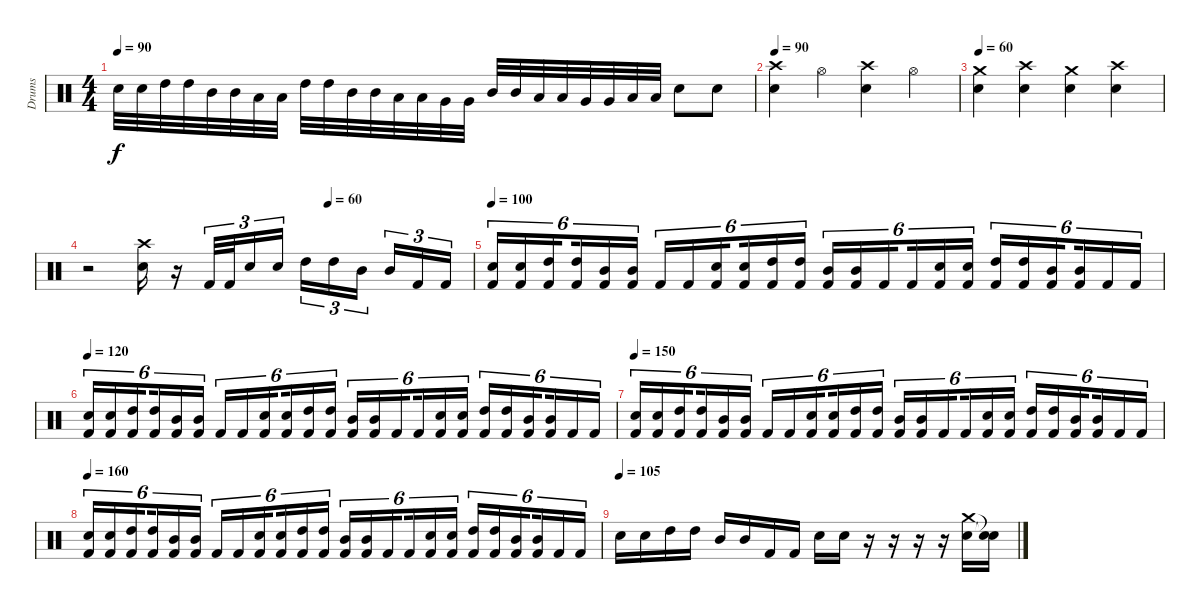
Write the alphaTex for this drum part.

\track ("Drums" "Drums") {instrument percussion}
\staff {score}
\articulation defaults
\ts (4 4)
\tempo 90
\clef neutral
\ks c "Snare (hit) 2".32{dy f} "Snare (hit) 2".32 "High Tom (hit)".32 "High Tom (hit)".32 "Mid Tom (hit)".32 "Mid Tom (hit)".32 "Low Tom (hit)".32 "Low Tom (hit)".32 "High Tom (hit)".32 "High Tom (hit)".32 "Mid Tom (hit)".32 "Mid Tom (hit)".32 "Low Tom (hit)".32 "Low Tom (hit)".32 "Very Low Tom (hit)".32 "Very Low Tom (hit)".32 "Mid Tom (hit)".32 "Mid Tom (hit)".32 "Low Tom (hit)".32 "Low Tom (hit)".32 "Very Low Tom (hit)".32 "Very Low Tom (hit)".32 "Low Floor Tom (hit)".32 "Low Floor Tom (hit)".32 "Snare (hit) 2".8 "Snare (hit) 2".8
|
\tempo 90
("Crash high (hit)" "Snare (hit) 2").4 "Hi-Hat (open)".4 ("Crash high (hit)" "Snare (hit) 2").4 "Hi-Hat (open)".4 |
\tempo 60
("Crash medium (hit)" "Snare (hit) 2").4 ("Crash high (hit)" "Snare (hit) 2").4 ("Crash medium (hit)" "Snare (hit) 2").4 ("Crash high (hit)" "Snare (hit) 2").4 |
\tempo (60 0.625)
r.2 ("Crash high (hit)" "Snare (hit) 2").16 r.16 "Kick (hit) 2".32{tu (3 2)} "Kick (hit) 2".32{tu (3 2)} "Snare (hit) 2".16{tu (3 2)} "Snare (hit) 2".16{tu (3 2)} "High Tom (hit)".16{tu (3 2)} "High Tom (hit)".16{tu (3 2)} "Mid Tom (hit)".16{tu (3 2) beam splitsecondary} "Mid Tom (hit)".16{tu (3 2)} "Kick (hit) 2".16{tu (3 2)} "Kick (hit) 2".16{tu (3 2)} |
\tempo 100
("Snare (hit) 2" "Kick (hit) 2").16{tu (6 4)} ("Snare (hit) 2" "Kick (hit) 2").16{tu (6 4)} ("High Tom (hit)" "Kick (hit) 2").16{tu (6 4) beam splitsecondary} ("High Tom (hit)" "Kick (hit) 2").16{tu (6 4)} ("Mid Tom (hit)" "Kick (hit) 2").16{tu (6 4)} ("Mid Tom (hit)" "Kick (hit) 2").16{tu (6 4)} "Kick (hit) 2".16{tu (6 4)} "Kick (hit) 2".16{tu (6 4)} ("Snare (hit) 2" "Kick (hit) 2").16{tu (6 4) beam splitsecondary} ("Snare (hit) 2" "Kick (hit) 2").16{tu (6 4)} ("High Tom (hit)" "Kick (hit) 2").16{tu (6 4)} ("High Tom (hit)" "Kick (hit) 2").16{tu (6 4)} ("Mid Tom (hit)" "Kick (hit) 2").16{tu (6 4)} ("Mid Tom (hit)" "Kick (hit) 2").16{tu (6 4)} "Kick (hit) 2".16{tu (6 4) beam splitsecondary} "Kick (hit) 2".16{tu (6 4)} ("Snare (hit) 2" "Kick (hit) 2").16{tu (6 4)} ("Snare (hit) 2" "Kick (hit) 2").16{tu (6 4)} ("High Tom (hit)" "Kick (hit) 2").16{tu (6 4)} ("High Tom (hit)" "Kick (hit) 2").16{tu (6 4)} ("Mid Tom (hit)" "Kick (hit) 2").16{tu (6 4) beam splitsecondary} ("Mid Tom (hit)" "Kick (hit) 2").16{tu (6 4)} "Kick (hit) 2".16{tu (6 4)} "Kick (hit) 2".16{tu (6 4)} |
\tempo 120
("Snare (hit) 2" "Kick (hit) 2").16{tu (6 4)} ("Snare (hit) 2" "Kick (hit) 2").16{tu (6 4)} ("High Tom (hit)" "Kick (hit) 2").16{tu (6 4) beam splitsecondary} ("High Tom (hit)" "Kick (hit) 2").16{tu (6 4)} ("Mid Tom (hit)" "Kick (hit) 2").16{tu (6 4)} ("Mid Tom (hit)" "Kick (hit) 2").16{tu (6 4)} "Kick (hit) 2".16{tu (6 4)} "Kick (hit) 2".16{tu (6 4)} ("Snare (hit) 2" "Kick (hit) 2").16{tu (6 4) beam splitsecondary} ("Snare (hit) 2" "Kick (hit) 2").16{tu (6 4)} ("High Tom (hit)" "Kick (hit) 2").16{tu (6 4)} ("High Tom (hit)" "Kick (hit) 2").16{tu (6 4)} ("Mid Tom (hit)" "Kick (hit) 2").16{tu (6 4)} ("Mid Tom (hit)" "Kick (hit) 2").16{tu (6 4)} "Kick (hit) 2".16{tu (6 4) beam splitsecondary} "Kick (hit) 2".16{tu (6 4)} ("Snare (hit) 2" "Kick (hit) 2").16{tu (6 4)} ("Snare (hit) 2" "Kick (hit) 2").16{tu (6 4)} ("High Tom (hit)" "Kick (hit) 2").16{tu (6 4)} ("High Tom (hit)" "Kick (hit) 2").16{tu (6 4)} ("Mid Tom (hit)" "Kick (hit) 2").16{tu (6 4) beam splitsecondary} ("Mid Tom (hit)" "Kick (hit) 2").16{tu (6 4)} "Kick (hit) 2".16{tu (6 4)} "Kick (hit) 2".16{tu (6 4)} |
\tempo 150
("Snare (hit) 2" "Kick (hit) 2").16{tu (6 4)} ("Snare (hit) 2" "Kick (hit) 2").16{tu (6 4)} ("High Tom (hit)" "Kick (hit) 2").16{tu (6 4) beam splitsecondary} ("High Tom (hit)" "Kick (hit) 2").16{tu (6 4)} ("Mid Tom (hit)" "Kick (hit) 2").16{tu (6 4)} ("Mid Tom (hit)" "Kick (hit) 2").16{tu (6 4)} "Kick (hit) 2".16{tu (6 4)} "Kick (hit) 2".16{tu (6 4)} ("Snare (hit) 2" "Kick (hit) 2").16{tu (6 4) beam splitsecondary} ("Snare (hit) 2" "Kick (hit) 2").16{tu (6 4)} ("High Tom (hit)" "Kick (hit) 2").16{tu (6 4)} ("High Tom (hit)" "Kick (hit) 2").16{tu (6 4)} ("Mid Tom (hit)" "Kick (hit) 2").16{tu (6 4)} ("Mid Tom (hit)" "Kick (hit) 2").16{tu (6 4)} "Kick (hit) 2".16{tu (6 4) beam splitsecondary} "Kick (hit) 2".16{tu (6 4)} ("Snare (hit) 2" "Kick (hit) 2").16{tu (6 4)} ("Snare (hit) 2" "Kick (hit) 2").16{tu (6 4)} ("High Tom (hit)" "Kick (hit) 2").16{tu (6 4)} ("High Tom (hit)" "Kick (hit) 2").16{tu (6 4)} ("Mid Tom (hit)" "Kick (hit) 2").16{tu (6 4) beam splitsecondary} ("Mid Tom (hit)" "Kick (hit) 2").16{tu (6 4)} "Kick (hit) 2".16{tu (6 4)} "Kick (hit) 2".16{tu (6 4)} |
\tempo 160
("Snare (hit) 2" "Kick (hit) 2").16{tu (6 4)} ("Snare (hit) 2" "Kick (hit) 2").16{tu (6 4)} ("High Tom (hit)" "Kick (hit) 2").16{tu (6 4) beam splitsecondary} ("High Tom (hit)" "Kick (hit) 2").16{tu (6 4)} ("Mid Tom (hit)" "Kick (hit) 2").16{tu (6 4)} ("Mid Tom (hit)" "Kick (hit) 2").16{tu (6 4)} "Kick (hit) 2".16{tu (6 4)} "Kick (hit) 2".16{tu (6 4)} ("Snare (hit) 2" "Kick (hit) 2").16{tu (6 4) beam splitsecondary} ("Snare (hit) 2" "Kick (hit) 2").16{tu (6 4)} ("High Tom (hit)" "Kick (hit) 2").16{tu (6 4)} ("High Tom (hit)" "Kick (hit) 2").16{tu (6 4)} ("Mid Tom (hit)" "Kick (hit) 2").16{tu (6 4)} ("Mid Tom (hit)" "Kick (hit) 2").16{tu (6 4)} "Kick (hit) 2".16{tu (6 4) beam splitsecondary} "Kick (hit) 2".16{tu (6 4)} ("Snare (hit) 2" "Kick (hit) 2").16{tu (6 4)} ("Snare (hit) 2" "Kick (hit) 2").16{tu (6 4)} ("High Tom (hit)" "Kick (hit) 2").16{tu (6 4)} ("High Tom (hit)" "Kick (hit) 2").16{tu (6 4)} ("Mid Tom (hit)" "Kick (hit) 2").16{tu (6 4) beam splitsecondary} ("Mid Tom (hit)" "Kick (hit) 2").16{tu (6 4)} "Kick (hit) 2".16{tu (6 4)} "Kick (hit) 2".16{tu (6 4)} |
\tempo (105)
"Snare (hit) 2".16 "Snare (hit) 2".16 "High Tom (hit)".16 "High Tom (hit)".16 "Mid Tom (hit)".16 "Mid Tom (hit)".16 "Kick (hit) 2".16 "Kick (hit) 2".16 "Snare (hit) 2".16 "Snare (hit) 2".16 r.16 r.16 r.16 r.16 ("Crash medium (hit)" "Snare (hit) 2").16 ("Snare (hit)"{t} "Snare (hit)"{t}).16
